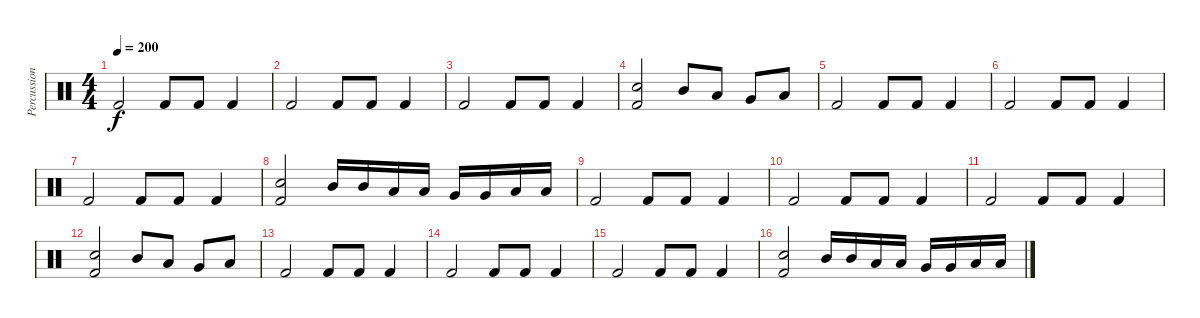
\track ("Percussions" "Percussion") {instrument percussion}
\staff {score}
\articulation defaults
\ts (4 4)
\tempo 200
\clef neutral
\ks c "Kick (hit) 2".2{dy f} "Kick (hit) 2".8 "Kick (hit) 2".8 "Kick (hit) 2".4
|
"Kick (hit) 2".2 "Kick (hit) 2".8 "Kick (hit) 2".8 "Kick (hit) 2".4 |
"Kick (hit) 2".2 "Kick (hit) 2".8 "Kick (hit) 2".8 "Kick (hit) 2".4 |
("Snare (hit) 2" "Kick (hit) 2").2 "Mid Tom (hit)".8 "Low Tom (hit)".8 "Very Low Tom (hit)".8 "Low Floor Tom (hit)".8 |
"Kick (hit) 2".2 "Kick (hit) 2".8 "Kick (hit) 2".8 "Kick (hit) 2".4 |
"Kick (hit) 2".2 "Kick (hit) 2".8 "Kick (hit) 2".8 "Kick (hit) 2".4 |
"Kick (hit) 2".2 "Kick (hit) 2".8 "Kick (hit) 2".8 "Kick (hit) 2".4 |
("Snare (hit) 2" "Kick (hit) 2").2 "Mid Tom (hit)".16 "Mid Tom (hit)".16 "Low Tom (hit)".16 "Low Tom (hit)".16 "Very Low Tom (hit)".16 "Very Low Tom (hit)".16 "Low Floor Tom (hit)".16 "Low Floor Tom (hit)".16 |
"Kick (hit) 2".2 "Kick (hit) 2".8 "Kick (hit) 2".8 "Kick (hit) 2".4 |
"Kick (hit) 2".2 "Kick (hit) 2".8 "Kick (hit) 2".8 "Kick (hit) 2".4 |
"Kick (hit) 2".2 "Kick (hit) 2".8 "Kick (hit) 2".8 "Kick (hit) 2".4 |
("Snare (hit) 2" "Kick (hit) 2").2 "Mid Tom (hit)".8 "Low Tom (hit)".8 "Very Low Tom (hit)".8 "Low Floor Tom (hit)".8 |
"Kick (hit) 2".2 "Kick (hit) 2".8 "Kick (hit) 2".8 "Kick (hit) 2".4 |
"Kick (hit) 2".2 "Kick (hit) 2".8 "Kick (hit) 2".8 "Kick (hit) 2".4 |
"Kick (hit) 2".2 "Kick (hit) 2".8 "Kick (hit) 2".8 "Kick (hit) 2".4 |
("Snare (hit) 2" "Kick (hit) 2").2 "Mid Tom (hit)".16 "Mid Tom (hit)".16 "Low Tom (hit)".16 "Low Tom (hit)".16 "Very Low Tom (hit)".16 "Very Low Tom (hit)".16 "Low Floor Tom (hit)".16 "Low Floor Tom (hit)".16
